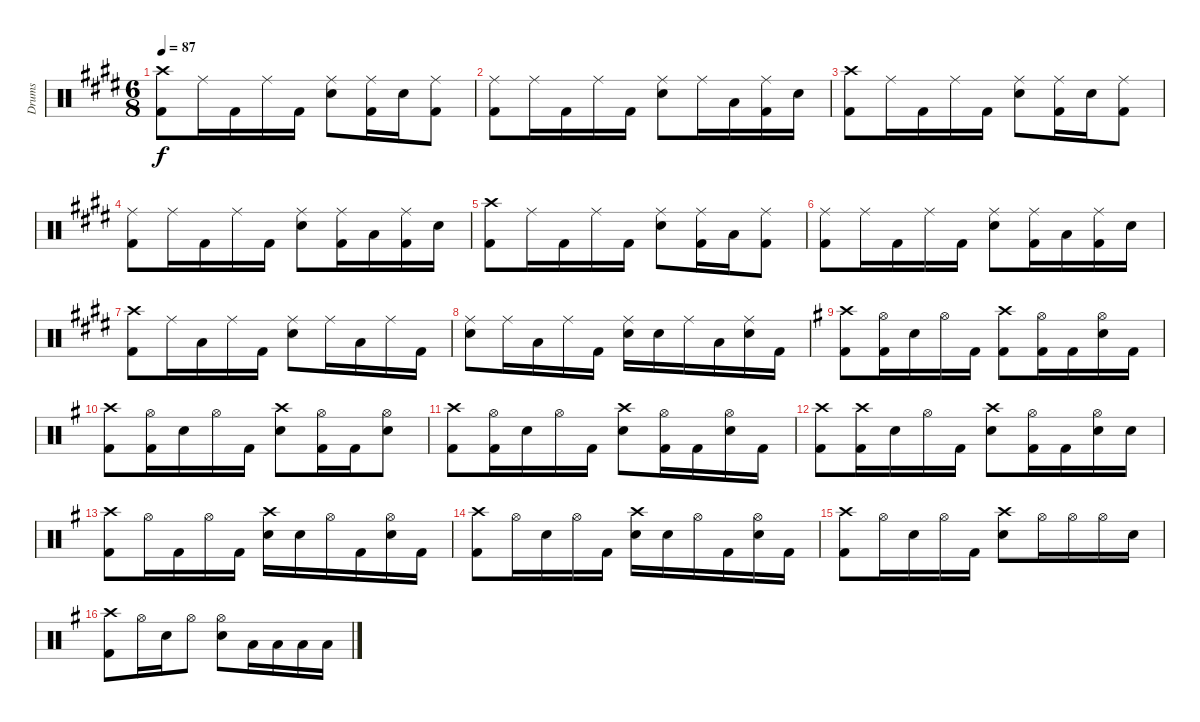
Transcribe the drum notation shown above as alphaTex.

\track ("Drums" "Drums") {instrument percussion}
\staff {score}
\articulation defaults
\ts (6 8)
\tempo 87
\clef neutral
\ks e
("Crash high (hit)" "Kick (hit) 2").8{dy f} "Ride (middle)".16 "Kick (hit) 2".16 "Ride (middle)".16 "Kick (hit) 2".16 ("Ride (middle)" "Electric Snare (hit)").8 ("Ride (middle)" "Kick (hit) 2").16 "Electric Snare (hit)".16 ("Ride (middle)" "Kick (hit) 2").8 |
\ks c#minor
("Ride (middle)" "Kick (hit) 2").8 "Ride (middle)".16 "Kick (hit) 2".16 "Ride (middle)".16 "Kick (hit) 2".16 ("Ride (middle)" "Electric Snare (hit)").8 "Ride (middle)".16 "Low Tom (hit)".16 ("Ride (middle)" "Kick (hit) 2").16 "Electric Snare (hit)".16 |
\ks e
("Crash high (hit)" "Kick (hit) 2").8 "Ride (middle)".16 "Kick (hit) 2".16 "Ride (middle)".16 "Kick (hit) 2".16 ("Ride (middle)" "Electric Snare (hit)").8 ("Ride (middle)" "Kick (hit) 2").16 "Electric Snare (hit)".16 ("Ride (middle)" "Kick (hit) 2").8 |
\ks c#minor
("Ride (middle)" "Kick (hit) 2").8 "Ride (middle)".16 "Kick (hit) 2".16 "Ride (middle)".16 "Kick (hit) 2".16 ("Ride (middle)" "Electric Snare (hit)").8 ("Ride (middle)" "Kick (hit) 2").16 "Low Tom (hit)".16 ("Ride (middle)" "Kick (hit) 2").16 "Electric Snare (hit)".16 |
\ks e
("Crash high (hit)" "Kick (hit) 2").8 "Ride (middle)".16 "Kick (hit) 2".16 "Ride (middle)".16 "Kick (hit) 2".16 ("Ride (middle)" "Electric Snare (hit)").8 ("Ride (middle)" "Kick (hit) 2").16 "Low Tom (hit)".16 ("Ride (middle)" "Kick (hit) 2").8 |
\ks c#minor
("Ride (middle)" "Kick (hit) 2").8 "Ride (middle)".16 "Kick (hit) 2".16 "Ride (middle)".16 "Kick (hit) 2".16 ("Ride (middle)" "Electric Snare (hit)").8 ("Ride (middle)" "Kick (hit) 2").16 "Low Tom (hit)".16 ("Ride (middle)" "Kick (hit) 2").16 "Electric Snare (hit)".16 |
\ks e
("Crash high (hit)" "Kick (hit) 2").8 "Ride (middle)".16 "Low Tom (hit)".16 "Ride (middle)".16 "Kick (hit) 2".16 ("Ride (middle)" "Electric Snare (hit)").8 "Ride (middle)".16 "Low Tom (hit)".16 "Ride (middle)".16 "Kick (hit) 2".16 |
\ks c#minor
("Ride (middle)" "Electric Snare (hit)").8 "Ride (middle)".16 "Low Tom (hit)".16 "Ride (middle)".16 "Kick (hit) 2".16 ("Ride (middle)" "Electric Snare (hit)").16 "Electric Snare (hit)".16 "Ride (middle)".16 "Low Tom (hit)".16 ("Ride (middle)" "Electric Snare (hit)").16 "Kick (hit) 2".16 |
\ks g
("Crash high (hit)" "Kick (hit) 2").8 ("Hi-Hat (open)" "Kick (hit) 2").16 "Electric Snare (hit)".16 "Hi-Hat (open)".16 "Kick (hit) 2".16 ("Crash high (hit)" "Kick (hit) 2").8 ("Hi-Hat (open)" "Kick (hit) 2").16 "Kick (hit) 2".16 ("Hi-Hat (open)" "Electric Snare (hit)").16 "Kick (hit) 2".16 |
("Crash high (hit)" "Kick (hit) 2").8 ("Hi-Hat (open)" "Kick (hit) 2").16 "Electric Snare (hit)".16 "Hi-Hat (open)".16 "Kick (hit) 2".16 ("Crash high (hit)" "Electric Snare (hit)").8 ("Hi-Hat (open)" "Kick (hit) 2").16 "Kick (hit) 2".16 ("Hi-Hat (open)" "Electric Snare (hit)").8 |
("Crash high (hit)" "Kick (hit) 2").8 ("Hi-Hat (open)" "Kick (hit) 2").16 "Electric Snare (hit)".16 "Hi-Hat (open)".16 "Kick (hit) 2".16 ("Crash high (hit)" "Electric Snare (hit)").8 ("Hi-Hat (open)" "Kick (hit) 2").16 "Kick (hit) 2".16 ("Hi-Hat (open)" "Electric Snare (hit)").16 "Kick (hit) 2".16 |
("Crash high (hit)" "Kick (hit) 2").8 ("Crash high (hit)" "Kick (hit) 2").16 "Electric Snare (hit)".16 "Hi-Hat (open)".16 "Kick (hit) 2".16 ("Crash high (hit)" "Electric Snare (hit)").8 ("Hi-Hat (open)" "Kick (hit) 2").16 "Kick (hit) 2".16 ("Hi-Hat (open)" "Electric Snare (hit)").16 "Electric Snare (hit)".16 |
("Crash high (hit)" "Kick (hit) 2").8 "Hi-Hat (open)".16 "Kick (hit) 2".16 "Hi-Hat (open)".16 "Kick (hit) 2".16 ("Crash high (hit)" "Electric Snare (hit)").16 "Electric Snare (hit)".16 "Hi-Hat (open)".16 "Kick (hit) 2".16 ("Hi-Hat (open)" "Electric Snare (hit)").16 "Kick (hit) 2".16 |
("Crash high (hit)" "Kick (hit) 2").8 "Hi-Hat (open)".16 "Electric Snare (hit)".16 "Hi-Hat (open)".16 "Kick (hit) 2".16 ("Crash high (hit)" "Electric Snare (hit)").16 "Electric Snare (hit)".16 "Hi-Hat (open)".16 "Kick (hit) 2".16 ("Hi-Hat (open)" "Electric Snare (hit)").16 "Kick (hit) 2".16 |
("Crash high (hit)" "Kick (hit) 2").8 "Hi-Hat (open)".16 "Electric Snare (hit)".16 "Hi-Hat (open)".16 "Kick (hit) 2".16 ("Crash high (hit)" "Electric Snare (hit)").8 "Hi-Hat (open)".16 "Hi-Hat (open)".16 "Hi-Hat (open)".16 "Electric Snare (hit)".16 |
("Crash high (hit)" "Kick (hit) 2").8 "Hi-Hat (open)".16 "Electric Snare (hit)".16 "Hi-Hat (open)".8 ("Hi-Hat (open)" "Electric Snare (hit)").8 "Low Tom (hit)".16 "Low Tom (hit)".16 "Low Tom (hit)".16 "Low Tom (hit)".16
